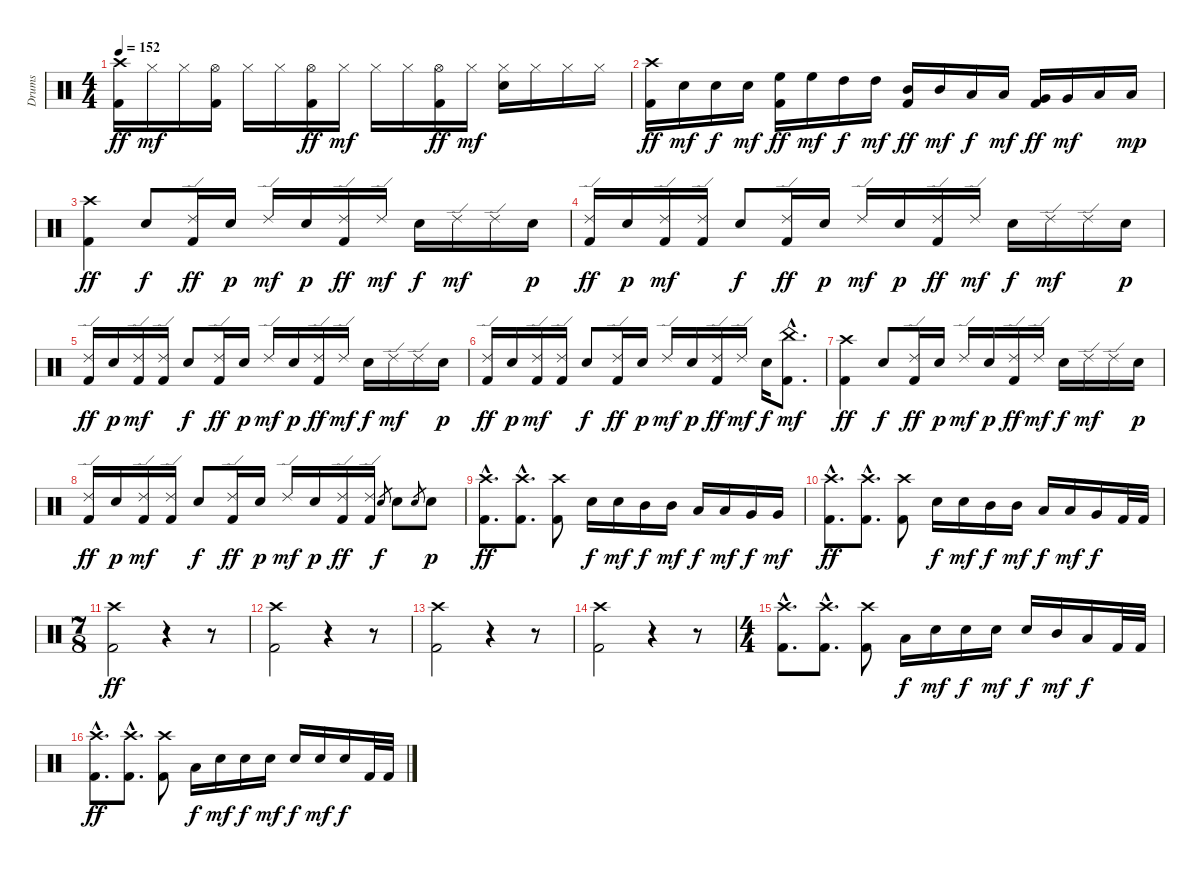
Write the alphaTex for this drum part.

\track ("Drums" "Drums") {instrument percussion}
\staff {score}
\articulation defaults
\ts (4 4)
\tempo 152
\clef neutral
\ks c
("Crash high (hit)" "Kick (hit) 2").16{dy ff} "Hi-Hat (closed)".16{dy mf} "Hi-Hat (closed)".16 ("Hi-Hat (open)" "Kick (hit) 2").16 "Hi-Hat (closed)".16 "Hi-Hat (closed)".16 ("Hi-Hat (open)" "Kick (hit) 2").16{dy ff} "Hi-Hat (closed)".16{dy mf} "Hi-Hat (closed)".16 "Hi-Hat (closed)".16 ("Hi-Hat (open)" "Kick (hit) 2").16{dy ff} "Hi-Hat (closed)".16{dy mf} ("Hi-Hat (closed)" "Snare (hit) 2").16 "Hi-Hat (closed)".16 "Hi-Hat (closed)".16 "Hi-Hat (closed)".16 |
("Crash high (hit)" "Kick (hit) 2").16{dy ff} "Snare (hit) 2".16{dy mf} "Snare (hit) 2".16{dy f} "Snare (hit) 2".16{dy mf} ("High Floor Tom (hit)" "Kick (hit) 2").16{dy ff} "High Floor Tom (hit)".16{dy mf} "High Tom (hit)".16{dy f} "High Tom (hit)".16{dy mf} ("Mid Tom (hit)" "Kick (hit) 2").16{dy ff} "Mid Tom (hit)".16{dy mf} "Low Tom (hit)".16{dy f} "Low Tom (hit)".16{dy mf} ("Very Low Tom (hit)" "Kick (hit) 2").16{dy ff} "Very Low Tom (hit)".16{dy mf} "Low Floor Tom (hit)".16 "Low Floor Tom (hit)".16{dy mp} |
("Crash high (hit)" "Kick (hit) 2").4{dy ff} "Snare (hit) 2".8{dy f} ("Ride (edge) 2" "Kick (hit) 2").16{dy ff} "Snare (hit) 2".16{dy p} "Ride (edge) 2".16{dy mf} "Snare (hit) 2".16{dy p} ("Ride (edge) 2" "Kick (hit) 2").16{dy ff} "Ride (edge) 2".16{dy mf} "Snare (hit) 2".16{dy f} "Ride (edge) 2".16{dy mf} "Ride (edge) 2".16 "Snare (hit) 2".16{dy p} |
("Ride (edge) 2" "Kick (hit) 2").16{dy ff} "Snare (hit) 2".16{dy p} ("Ride (edge) 2" "Kick (hit) 2").16{dy mf} ("Ride (edge) 2" "Kick (hit) 2").16 "Snare (hit) 2".8{dy f} ("Ride (edge) 2" "Kick (hit) 2").16{dy ff} "Snare (hit) 2".16{dy p} "Ride (edge) 2".16{dy mf} "Snare (hit) 2".16{dy p} ("Ride (edge) 2" "Kick (hit) 2").16{dy ff} "Ride (edge) 2".16{dy mf} "Snare (hit) 2".16{dy f} "Ride (edge) 2".16{dy mf} "Ride (edge) 2".16 "Snare (hit) 2".16{dy p} |
("Ride (edge) 2" "Kick (hit) 2").16{dy ff} "Snare (hit) 2".16{dy p} ("Ride (edge) 2" "Kick (hit) 2").16{dy mf} ("Ride (edge) 2" "Kick (hit) 2").16 "Snare (hit) 2".8{dy f} ("Ride (edge) 2" "Kick (hit) 2").16{dy ff} "Snare (hit) 2".16{dy p} "Ride (edge) 2".16{dy mf} "Snare (hit) 2".16{dy p} ("Ride (edge) 2" "Kick (hit) 2").16{dy ff} "Ride (edge) 2".16{dy mf} "Snare (hit) 2".16{dy f} "Ride (edge) 2".16{dy mf} "Ride (edge) 2".16 "Snare (hit) 2".16{dy p} |
("Ride (edge) 2" "Kick (hit) 2").16{dy ff} "Snare (hit) 2".16{dy p} ("Ride (edge) 2" "Kick (hit) 2").16{dy mf} ("Ride (edge) 2" "Kick (hit) 2").16 "Snare (hit) 2".8{dy f} ("Ride (edge) 2" "Kick (hit) 2").16{dy ff} "Snare (hit) 2".16{dy p} "Ride (edge) 2".16{dy mf} "Snare (hit) 2".16{dy p} ("Ride (edge) 2" "Kick (hit) 2").16{dy ff} "Ride (edge) 2".16{dy mf} "Snare (hit) 2".16{dy f} ("China (hit)"{hac} "Kick (hit) 2"{hac}).8{d dy mf} |
("Crash high (hit)" "Kick (hit) 2").4{dy ff} "Snare (hit) 2".8{dy f} ("Ride (edge) 2" "Kick (hit) 2").16{dy ff} "Snare (hit) 2".16{dy p} "Ride (edge) 2".16{dy mf} "Snare (hit) 2".16{dy p} ("Ride (edge) 2" "Kick (hit) 2").16{dy ff} "Ride (edge) 2".16{dy mf} "Snare (hit) 2".16{dy f} "Ride (edge) 2".16{dy mf} "Ride (edge) 2".16 "Snare (hit) 2".16{dy p} |
("Ride (edge) 2" "Kick (hit) 2").16{dy ff} "Snare (hit) 2".16{dy p} ("Ride (edge) 2" "Kick (hit) 2").16{dy mf} ("Ride (edge) 2" "Kick (hit) 2").16 "Snare (hit) 2".8{dy f} ("Ride (edge) 2" "Kick (hit) 2").16{dy ff} "Snare (hit) 2".16{dy p} "Ride (edge) 2".16{dy mf} "Snare (hit) 2".16{dy p} ("Ride (edge) 2" "Kick (hit) 2").16{dy ff} ("Ride (edge) 2" "Kick (hit) 2").16 "Snare (hit) 2".8{gr dy f} "Snare (hit) 2".8 "Snare (hit) 2".8{gr} "Snare (hit) 2".8{dy p} |
("Crash high (hit)"{hac} "Kick (hit) 2"{hac}).8{d dy ff} ("Crash high (hit)"{hac} "Kick (hit) 2"{hac}).8{d} ("Crash high (hit)" "Kick (hit) 2").8 "Snare (hit) 2".16{dy f} "Snare (hit) 2".16{dy mf} "Mid Tom (hit)".16{dy f} "Mid Tom (hit)".16{dy mf} "Low Tom (hit)".16{dy f} "Low Tom (hit)".16{dy mf} "Very Low Tom (hit)".16{dy f} "Very Low Tom (hit)".16{dy mf} |
("Crash high (hit)"{hac} "Kick (hit) 2"{hac}).8{d dy ff} ("Crash high (hit)"{hac} "Kick (hit) 2"{hac}).8{d} ("Crash high (hit)" "Kick (hit) 2").8 "Snare (hit) 2".16{dy f} "Snare (hit) 2".16{dy mf} "Mid Tom (hit)".16{dy f} "Mid Tom (hit)".16{dy mf} "Low Tom (hit)".16{dy f} "Low Tom (hit)".16{dy mf} "Very Low Tom (hit)".16{dy f} "Kick (hit) 2".32 "Kick (hit) 2".32 |
\ts (7 8)
("Crash high (hit)" "Kick (hit) 2").2{dy ff} r.4 r.8 |
("Crash high (hit)" "Kick (hit) 2").2 r.4 r.8 |
("Crash high (hit)" "Kick (hit) 2").2 r.4 r.8 |
("Crash high (hit)" "Kick (hit) 2").2 r.4 r.8 |
\ts (4 4)
("Crash high (hit)"{hac} "Kick (hit) 2"{hac}).8{d} ("Crash high (hit)"{hac} "Kick (hit) 2"{hac}).8{d} ("Crash high (hit)" "Kick (hit) 2").8 "Low Tom (hit)".16{dy f} "Snare (hit) 2".16{dy mf} "Snare (hit) 2".16{dy f} "Snare (hit) 2".16{dy mf} "Snare (hit) 2".16{dy f} "Mid Tom (hit)".16{dy mf} "Low Tom (hit)".16{dy f} "Kick (hit) 2".32 "Kick (hit) 2".32 |
("Crash high (hit)"{hac} "Kick (hit) 2"{hac}).8{d dy ff} ("Crash high (hit)"{hac} "Kick (hit) 2"{hac}).8{d} ("Crash high (hit)" "Kick (hit) 2").8 "Low Tom (hit)".16{dy f} "Snare (hit) 2".16{dy mf} "Snare (hit) 2".16{dy f} "Snare (hit) 2".16{dy mf} "Snare (hit) 2".16{dy f} "Snare (hit) 2".16{dy mf} "Snare (hit) 2".16{dy f} "Kick (hit) 2".32 "Kick (hit) 2".32
